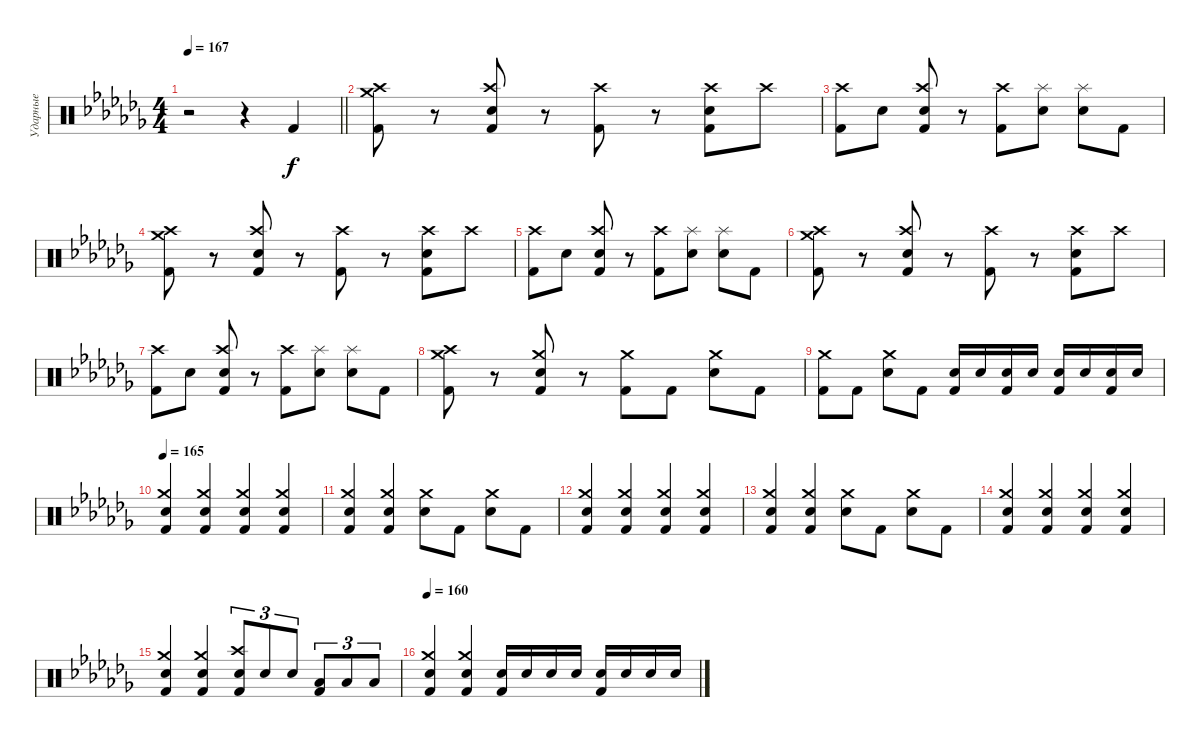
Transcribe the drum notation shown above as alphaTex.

\track ("Ударные" "Ударные") {instrument percussion}
\staff {score}
\articulation defaults
\ts (4 4)
\tempo 167
\clef neutral
\barLineRight lightlight
\ks abminor
r.2{dy f} r.4 "Kick (hit) 2".4 |
("Crash high (hit)" "Crash medium (hit)" "Kick (hit) 2").8 r.8 ("Crash high (hit)" "Electric Snare (hit)" "Kick (hit) 2").8 r.8 ("Crash high (hit)" "Kick (hit) 2").8 r.8 ("Crash high (hit)" "Electric Snare (hit)" "Kick (hit) 2").8 "Crash high (hit)".8 |
("Crash high (hit)" "Kick (hit) 2").8 "Electric Snare (hit)".8 ("Crash high (hit)" "Electric Snare (hit)" "Kick (hit) 2").8 r.8 ("Crash high (hit)" "Kick (hit) 2").8 ("Splash (hit)" "Electric Snare (hit)").8 ("Splash (hit)" "Electric Snare (hit)").8 "Kick (hit) 2".8 |
("Crash high (hit)" "Crash medium (hit)" "Kick (hit) 2").8 r.8 ("Crash high (hit)" "Electric Snare (hit)" "Kick (hit) 2").8 r.8 ("Crash high (hit)" "Kick (hit) 2").8 r.8 ("Crash high (hit)" "Electric Snare (hit)" "Kick (hit) 2").8 "Crash high (hit)".8 |
("Crash high (hit)" "Kick (hit) 2").8 "Electric Snare (hit)".8 ("Crash high (hit)" "Electric Snare (hit)" "Kick (hit) 2").8 r.8 ("Crash high (hit)" "Kick (hit) 2").8 ("Splash (hit)" "Electric Snare (hit)").8 ("Splash (hit)" "Electric Snare (hit)").8 "Kick (hit) 2".8 |
("Crash high (hit)" "Crash medium (hit)" "Kick (hit) 2").8 r.8 ("Crash high (hit)" "Electric Snare (hit)" "Kick (hit) 2").8 r.8 ("Crash high (hit)" "Kick (hit) 2").8 r.8 ("Crash high (hit)" "Electric Snare (hit)" "Kick (hit) 2").8 "Crash high (hit)".8 |
("Crash high (hit)" "Kick (hit) 2").8 "Electric Snare (hit)".8 ("Crash high (hit)" "Electric Snare (hit)" "Kick (hit) 2").8 r.8 ("Crash high (hit)" "Kick (hit) 2").8 ("Splash (hit)" "Electric Snare (hit)").8 ("Splash (hit)" "Electric Snare (hit)").8 "Kick (hit) 2".8 |
("Crash high (hit)" "Crash medium (hit)" "Kick (hit) 2").8 r.8 ("Crash medium (hit)" "Electric Snare (hit)" "Kick (hit) 2").8 r.8 ("Crash medium (hit)" "Kick (hit) 2").8 "Kick (hit) 2".8 ("Crash medium (hit)" "Electric Snare (hit)").8 "Kick (hit) 2".8 |
("Crash medium (hit)" "Kick (hit) 2").8 "Kick (hit) 2".8 ("Crash medium (hit)" "Electric Snare (hit)").8 "Kick (hit) 2".8 ("Electric Snare (hit)" "Kick (hit) 2").16 "Electric Snare (hit)".16 ("Electric Snare (hit)" "Kick (hit) 2").16 "Electric Snare (hit)".16 ("Electric Snare (hit)" "Kick (hit) 2").16 "Electric Snare (hit)".16 ("Electric Snare (hit)" "Kick (hit) 2").16 "Electric Snare (hit)".16 |
\tempo 165
("Crash medium (hit)" "Electric Snare (hit)" "Kick (hit) 2").4 ("Crash medium (hit)" "Electric Snare (hit)" "Kick (hit) 2").4 ("Crash medium (hit)" "Electric Snare (hit)" "Kick (hit) 2").4 ("Crash medium (hit)" "Electric Snare (hit)" "Kick (hit) 2").4 |
("Crash medium (hit)" "Electric Snare (hit)" "Kick (hit) 2").4 ("Crash medium (hit)" "Electric Snare (hit)" "Kick (hit) 2").4 ("Crash medium (hit)" "Electric Snare (hit)").8 "Kick (hit) 2".8 ("Crash medium (hit)" "Electric Snare (hit)").8 "Kick (hit) 2".8 |
("Crash medium (hit)" "Electric Snare (hit)" "Kick (hit) 2").4 ("Crash medium (hit)" "Electric Snare (hit)" "Kick (hit) 2").4 ("Crash medium (hit)" "Electric Snare (hit)" "Kick (hit) 2").4 ("Crash medium (hit)" "Electric Snare (hit)" "Kick (hit) 2").4 |
("Crash medium (hit)" "Electric Snare (hit)" "Kick (hit) 2").4 ("Crash medium (hit)" "Electric Snare (hit)" "Kick (hit) 2").4 ("Crash medium (hit)" "Electric Snare (hit)").8 "Kick (hit) 2".8 ("Crash medium (hit)" "Electric Snare (hit)").8 "Kick (hit) 2".8 |
("Crash medium (hit)" "Electric Snare (hit)" "Kick (hit) 2").4 ("Crash medium (hit)" "Electric Snare (hit)" "Kick (hit) 2").4 ("Crash medium (hit)" "Electric Snare (hit)" "Kick (hit) 2").4 ("Crash medium (hit)" "Electric Snare (hit)" "Kick (hit) 2").4 |
("Crash medium (hit)" "Electric Snare (hit)" "Kick (hit) 2").4 ("Crash medium (hit)" "Electric Snare (hit)" "Kick (hit) 2").4 ("Crash high (hit)" "Electric Snare (hit)" "Kick (hit) 2").8{tu (3 2)} "Electric Snare (hit)".8{tu (3 2)} "Electric Snare (hit)".8{tu (3 2)} ("Low Tom (hit)" "Kick (hit) 2").8{tu (3 2)} "Low Tom (hit)".8{tu (3 2)} "Low Tom (hit)".8{tu (3 2)} |
\tempo 160
("Crash medium (hit)" "Electric Snare (hit)" "Kick (hit) 2").4 ("Crash medium (hit)" "Electric Snare (hit)" "Kick (hit) 2").4 ("Electric Snare (hit)" "Kick (hit) 2").16 "Electric Snare (hit)".16 "Electric Snare (hit)".16 "Electric Snare (hit)".16 ("Electric Snare (hit)" "Kick (hit) 2").16 "Electric Snare (hit)".16 "Electric Snare (hit)".16 "Electric Snare (hit)".16
